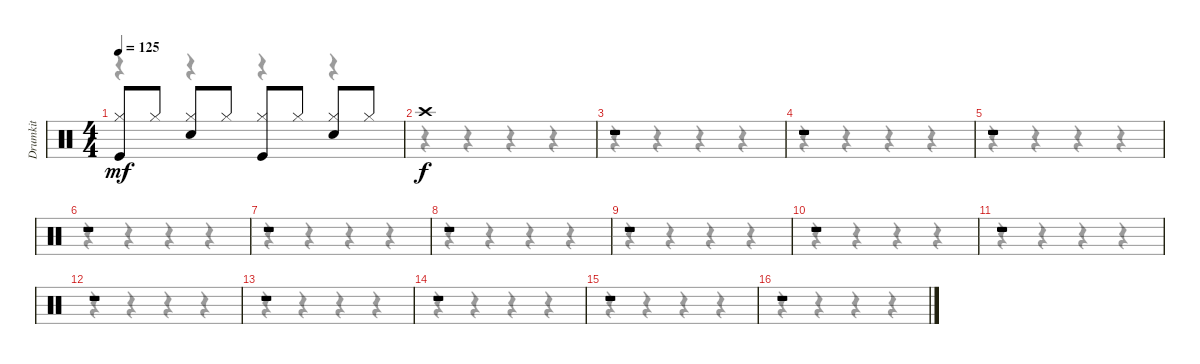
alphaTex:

\track ("Drumkit" "Drumkit") {instrument percussion}
\staff {score}
\articulation defaults
\voice
\ts (4 4)
\tempo 125
\clef neutral
\ks c
("Hi-Hat (closed)" "Kick (hit)").8{dy mf} "Hi-Hat (closed)".8 ("Hi-Hat (closed)" "Snare (hit) 2").8 "Hi-Hat (closed)".8 ("Hi-Hat (closed)" "Kick (hit)").8 "Hi-Hat (closed)".8 ("Hi-Hat (closed)" "Snare (hit) 2").8 "Hi-Hat (closed)".8 |
"Crash high (hit)".1{dy f} |
r.1 |
r.1 |
r.1 |
r.1 |
r.1 |
r.1 |
r.1 |
r.1 |
r.1 |
r.1 |
r.1 |
r.1 |
r.1 |
r.1
\voice
\clef neutral
\ottava regular
\simile none
\ks c
r.4{dy f} r.4 r.4 r.4 |
r.4 r.4 r.4 r.4 |
r.4 r.4 r.4 r.4 |
r.4 r.4 r.4 r.4 |
r.4 r.4 r.4 r.4 |
r.4 r.4 r.4 r.4 |
r.4 r.4 r.4 r.4 |
r.4 r.4 r.4 r.4 |
r.4 r.4 r.4 r.4 |
r.4 r.4 r.4 r.4 |
r.4 r.4 r.4 r.4 |
r.4 r.4 r.4 r.4 |
r.4 r.4 r.4 r.4 |
r.4 r.4 r.4 r.4 |
r.4 r.4 r.4 r.4 |
r.4 r.4 r.4 r.4
